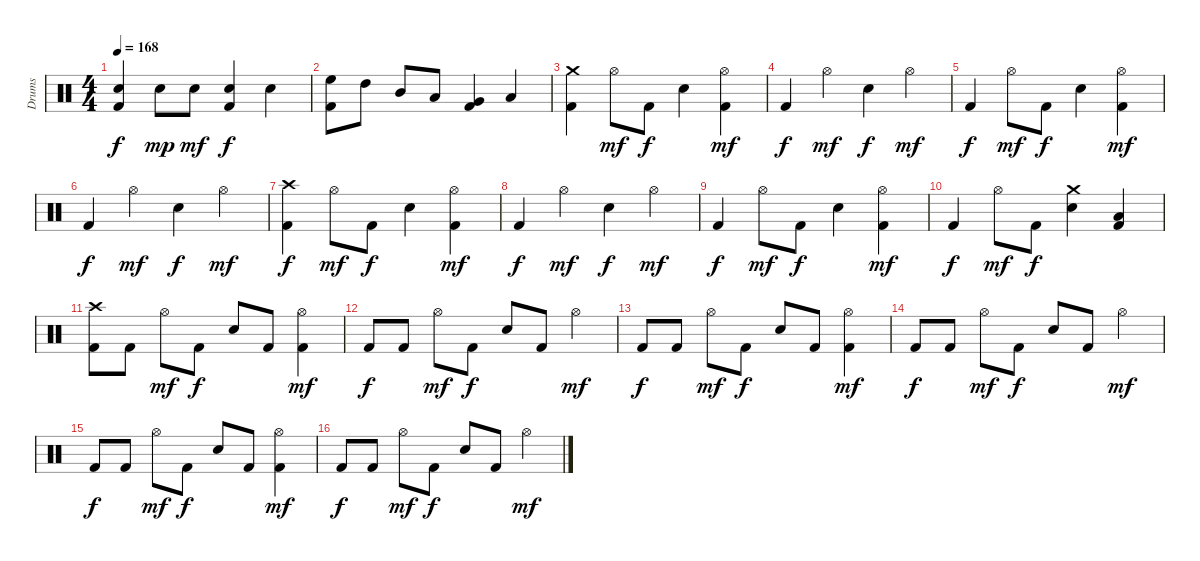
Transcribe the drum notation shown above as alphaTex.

\track ("Drums" "Drums") {instrument percussion}
\staff {score}
\articulation defaults
\ts (4 4)
\tempo 168
\clef neutral
\ks c
("Kick (hit) 2" "Electric Snare (hit)").4{dy f} "Electric Snare (hit)".8{dy mp} "Electric Snare (hit)".8{dy mf} ("Kick (hit) 2" "Electric Snare (hit)").4{dy f} "Electric Snare (hit)".4 |
("Kick (hit) 2" "High Floor Tom (hit)").8 "High Tom (hit)".8 "Mid Tom (hit)".8 "Low Tom (hit)".8 ("Kick (hit) 2" "Very Low Tom (hit)").4 "Low Floor Tom (hit)".4 |
\section ("" "")
("Kick (hit) 2" "Crash medium (hit)").4 "Hi-Hat (open)".8{dy mf} "Kick (hit) 2".8{dy f} "Electric Snare (hit)".4 ("Kick (hit) 2" "Hi-Hat (open)").4{dy mf} |
"Kick (hit) 2".4{dy f} "Hi-Hat (open)".4{dy mf} "Electric Snare (hit)".4{dy f} "Hi-Hat (open)".4{dy mf} |
"Kick (hit) 2".4{dy f} "Hi-Hat (open)".8{dy mf} "Kick (hit) 2".8{dy f} "Electric Snare (hit)".4 ("Kick (hit) 2" "Hi-Hat (open)").4{dy mf} |
"Kick (hit) 2".4{dy f} "Hi-Hat (open)".4{dy mf} "Electric Snare (hit)".4{dy f} "Hi-Hat (open)".4{dy mf} |
("Kick (hit) 2" "Crash high (hit)").4{dy f} "Hi-Hat (open)".8{dy mf} "Kick (hit) 2".8{dy f} "Electric Snare (hit)".4 ("Kick (hit) 2" "Hi-Hat (open)").4{dy mf} |
"Kick (hit) 2".4{dy f} "Hi-Hat (open)".4{dy mf} "Electric Snare (hit)".4{dy f} "Hi-Hat (open)".4{dy mf} |
"Kick (hit) 2".4{dy f} "Hi-Hat (open)".8{dy mf} "Kick (hit) 2".8{dy f} "Electric Snare (hit)".4 ("Kick (hit) 2" "Hi-Hat (open)").4{dy mf} |
"Kick (hit) 2".4{dy f} "Hi-Hat (open)".8{dy mf} "Kick (hit) 2".8{dy f} ("Electric Snare (hit)" "Crash medium (hit)").4 ("Kick (hit) 2" "Low Tom (hit)").4 |
\section ("" "")
("Kick (hit) 2" "Crash high (hit)").8 "Kick (hit) 2".8 "Hi-Hat (open)".8{dy mf} "Kick (hit) 2".8{dy f} "Electric Snare (hit)".8 "Kick (hit) 2".8 ("Kick (hit) 2" "Hi-Hat (open)").4{dy mf} |
"Kick (hit) 2".8{dy f} "Kick (hit) 2".8 "Hi-Hat (open)".8{dy mf} "Kick (hit) 2".8{dy f} "Electric Snare (hit)".8 "Kick (hit) 2".8 "Hi-Hat (open)".4{dy mf} |
"Kick (hit) 2".8{dy f} "Kick (hit) 2".8 "Hi-Hat (open)".8{dy mf} "Kick (hit) 2".8{dy f} "Electric Snare (hit)".8 "Kick (hit) 2".8 ("Kick (hit) 2" "Hi-Hat (open)").4{dy mf} |
"Kick (hit) 2".8{dy f} "Kick (hit) 2".8 "Hi-Hat (open)".8{dy mf} "Kick (hit) 2".8{dy f} "Electric Snare (hit)".8 "Kick (hit) 2".8 "Hi-Hat (open)".4{dy mf} |
"Kick (hit) 2".8{dy f} "Kick (hit) 2".8 "Hi-Hat (open)".8{dy mf} "Kick (hit) 2".8{dy f} "Electric Snare (hit)".8 "Kick (hit) 2".8 ("Kick (hit) 2" "Hi-Hat (open)").4{dy mf} |
"Kick (hit) 2".8{dy f} "Kick (hit) 2".8 "Hi-Hat (open)".8{dy mf} "Kick (hit) 2".8{dy f} "Electric Snare (hit)".8 "Kick (hit) 2".8 "Hi-Hat (open)".4{dy mf}
